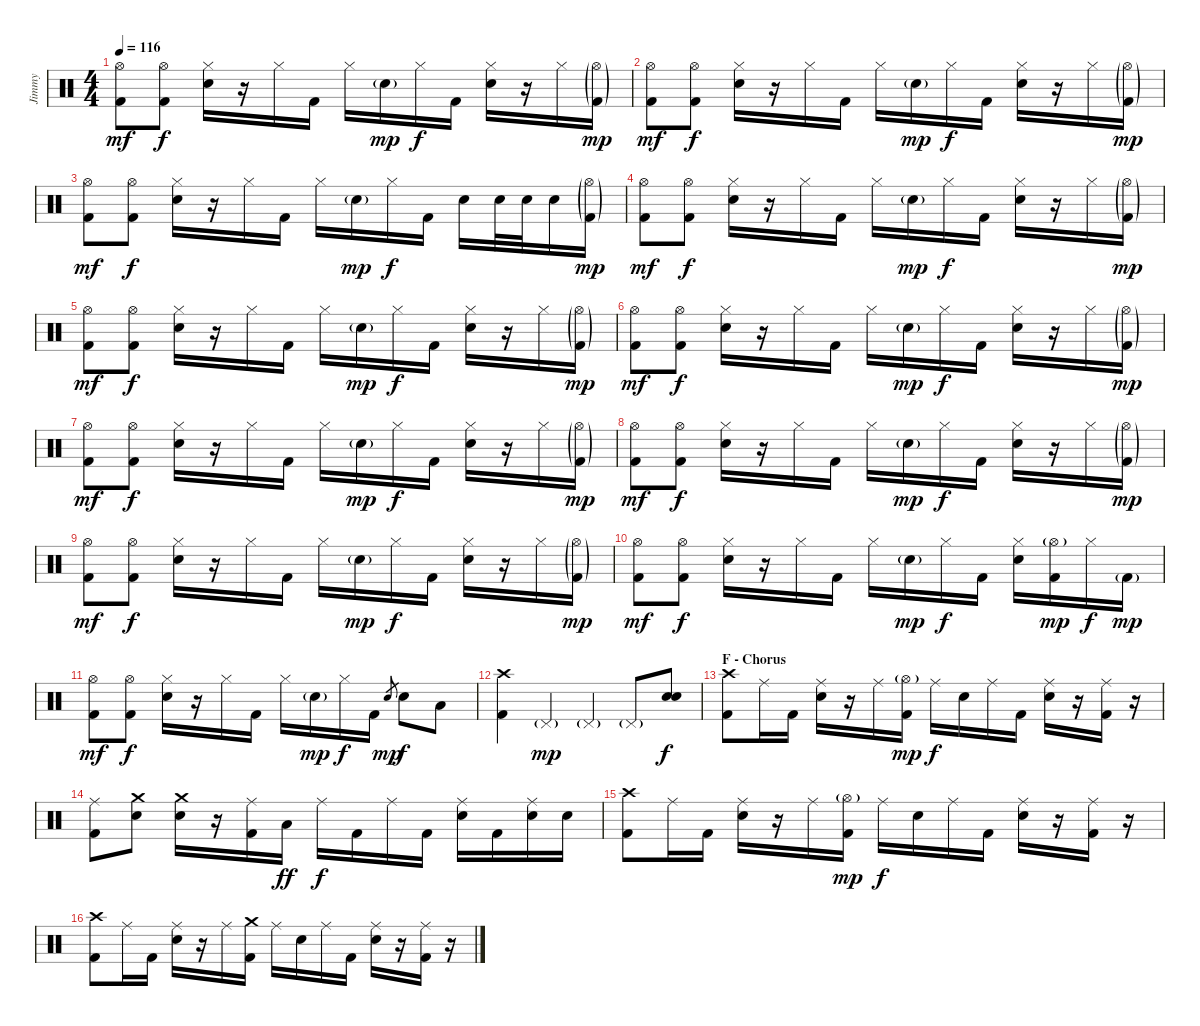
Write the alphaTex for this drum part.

\track ("Jimmy" "Jimmy") {instrument percussion}
\staff {score}
\articulation defaults
\ts (4 4)
\tempo 116
\clef neutral
\ks c
("Hi-Hat (open)" "Kick (hit) 2").8{dy mf} ("Hi-Hat (open)" "Kick (hit) 2").8{dy f} ("Hi-Hat (closed)" "Electric Snare (hit)").16 r.16 "Hi-Hat (closed)".16 "Kick (hit) 2".16 "Hi-Hat (closed)".16 "Electric Snare (hit)"{g}.16{dy mp} "Hi-Hat (closed)".16{dy f} "Kick (hit) 2".16 ("Hi-Hat (closed)" "Electric Snare (hit)").16 r.16 "Hi-Hat (closed)".16 ("Hi-Hat (open)"{g} "Kick (hit) 2"{g}).16{dy mp} |
("Hi-Hat (open)" "Kick (hit) 2").8{dy mf} ("Hi-Hat (open)" "Kick (hit) 2").8{dy f} ("Hi-Hat (closed)" "Electric Snare (hit)").16 r.16 "Hi-Hat (closed)".16 "Kick (hit) 2".16 "Hi-Hat (closed)".16 "Electric Snare (hit)"{g}.16{dy mp} "Hi-Hat (closed)".16{dy f} "Kick (hit) 2".16 ("Hi-Hat (closed)" "Electric Snare (hit)").16 r.16 "Hi-Hat (closed)".16 ("Hi-Hat (open)"{g} "Kick (hit) 2"{g}).16{dy mp} |
("Hi-Hat (open)" "Kick (hit) 2").8{dy mf} ("Hi-Hat (open)" "Kick (hit) 2").8{dy f} ("Hi-Hat (closed)" "Electric Snare (hit)").16 r.16 "Hi-Hat (closed)".16 "Kick (hit) 2".16 "Hi-Hat (closed)".16 "Electric Snare (hit)"{g}.16{dy mp} "Hi-Hat (closed)".16{dy f} "Kick (hit) 2".16 "Electric Snare (hit)".16 "Electric Snare (hit)".32 "Electric Snare (hit)".32 "Electric Snare (hit)".16 ("Hi-Hat (open)"{g} "Kick (hit) 2"{g}).16{dy mp} |
("Hi-Hat (open)" "Kick (hit) 2").8{dy mf} ("Hi-Hat (open)" "Kick (hit) 2").8{dy f} ("Hi-Hat (closed)" "Electric Snare (hit)").16 r.16 "Hi-Hat (closed)".16 "Kick (hit) 2".16 "Hi-Hat (closed)".16 "Electric Snare (hit)"{g}.16{dy mp} "Hi-Hat (closed)".16{dy f} "Kick (hit) 2".16 ("Hi-Hat (closed)" "Electric Snare (hit)").16 r.16 "Hi-Hat (closed)".16 ("Hi-Hat (open)"{g} "Kick (hit) 2"{g}).16{dy mp} |
("Hi-Hat (open)" "Kick (hit) 2").8{dy mf} ("Hi-Hat (open)" "Kick (hit) 2").8{dy f} ("Hi-Hat (closed)" "Electric Snare (hit)").16 r.16 "Hi-Hat (closed)".16 "Kick (hit) 2".16 "Hi-Hat (closed)".16 "Electric Snare (hit)"{g}.16{dy mp} "Hi-Hat (closed)".16{dy f} "Kick (hit) 2".16 ("Hi-Hat (closed)" "Electric Snare (hit)").16 r.16 "Hi-Hat (closed)".16 ("Hi-Hat (open)"{g} "Kick (hit) 2"{g}).16{dy mp} |
("Hi-Hat (open)" "Kick (hit) 2").8{dy mf} ("Hi-Hat (open)" "Kick (hit) 2").8{dy f} ("Hi-Hat (closed)" "Electric Snare (hit)").16 r.16 "Hi-Hat (closed)".16 "Kick (hit) 2".16 "Hi-Hat (closed)".16 "Electric Snare (hit)"{g}.16{dy mp} "Hi-Hat (closed)".16{dy f} "Kick (hit) 2".16 ("Hi-Hat (closed)" "Electric Snare (hit)").16 r.16 "Hi-Hat (closed)".16 ("Hi-Hat (open)"{g} "Kick (hit) 2"{g}).16{dy mp} |
("Hi-Hat (open)" "Kick (hit) 2").8{dy mf} ("Hi-Hat (open)" "Kick (hit) 2").8{dy f} ("Hi-Hat (closed)" "Electric Snare (hit)").16 r.16 "Hi-Hat (closed)".16 "Kick (hit) 2".16 "Hi-Hat (closed)".16 "Electric Snare (hit)"{g}.16{dy mp} "Hi-Hat (closed)".16{dy f} "Kick (hit) 2".16 ("Hi-Hat (closed)" "Electric Snare (hit)").16 r.16 "Hi-Hat (closed)".16 ("Hi-Hat (open)"{g} "Kick (hit) 2"{g}).16{dy mp} |
("Hi-Hat (open)" "Kick (hit) 2").8{dy mf} ("Hi-Hat (open)" "Kick (hit) 2").8{dy f} ("Hi-Hat (closed)" "Electric Snare (hit)").16 r.16 "Hi-Hat (closed)".16 "Kick (hit) 2".16 "Hi-Hat (closed)".16 "Electric Snare (hit)"{g}.16{dy mp} "Hi-Hat (closed)".16{dy f} "Kick (hit) 2".16 ("Hi-Hat (closed)" "Electric Snare (hit)").16 r.16 "Hi-Hat (closed)".16 ("Hi-Hat (open)"{g} "Kick (hit) 2"{g}).16{dy mp} |
("Hi-Hat (open)" "Kick (hit) 2").8{dy mf} ("Hi-Hat (open)" "Kick (hit) 2").8{dy f} ("Hi-Hat (closed)" "Electric Snare (hit)").16 r.16 "Hi-Hat (closed)".16 "Kick (hit) 2".16 "Hi-Hat (closed)".16 "Electric Snare (hit)"{g}.16{dy mp} "Hi-Hat (closed)".16{dy f} "Kick (hit) 2".16 ("Hi-Hat (closed)" "Electric Snare (hit)").16 r.16 "Hi-Hat (closed)".16 ("Hi-Hat (open)"{g} "Kick (hit) 2"{g}).16{dy mp} |
("Hi-Hat (open)" "Kick (hit) 2").8{dy mf} ("Hi-Hat (open)" "Kick (hit) 2").8{dy f} ("Hi-Hat (closed)" "Electric Snare (hit)").16 r.16 "Hi-Hat (closed)".16 "Kick (hit) 2".16 "Hi-Hat (closed)".16 "Electric Snare (hit)"{g}.16{dy mp} "Hi-Hat (closed)".16{dy f} "Kick (hit) 2".16 ("Hi-Hat (closed)" "Electric Snare (hit)").16 ("Hi-Hat (open)"{g} "Kick (hit) 2").16{dy mp} "Hi-Hat (closed)".16{dy f} "Kick (hit) 2"{g}.16{dy mp} |
("Hi-Hat (open)" "Kick (hit) 2").8{dy mf} ("Hi-Hat (open)" "Kick (hit) 2").8{dy f} ("Hi-Hat (closed)" "Electric Snare (hit)").16 r.16 "Hi-Hat (closed)".16 "Kick (hit) 2".16 "Hi-Hat (closed)".16 "Electric Snare (hit)"{g}.16{dy mp} "Hi-Hat (closed)".16{dy f} "Kick (hit) 2".16 "Electric Snare (hit)".8{gr dy mp} "Electric Snare (hit)".8{dy f} "Low Tom (hit)".8 |
("Crash high (hit)" "Kick (hit) 2").4 "Pedal Hi-Hat (hit)"{g}.4{dy mp} "Pedal Hi-Hat (hit)"{g}.4 "Pedal Hi-Hat (hit)"{g}.8 ("Electric Snare (hit)" "Electric Snare (hit)").8{dy f} |
\section ("" "F - Chorus")
("Crash high (hit)" "Kick (hit) 2").8 "Ride (middle)".16 "Kick (hit) 2".16 ("Ride (middle)" "Electric Snare (hit)").16 r.16 "Ride (middle)".16 ("Hi-Hat (open)"{g} "Kick (hit) 2").16{dy mp} "Ride (middle)".16{dy f} "Electric Snare (hit)".16 "Ride (middle)".16 "Kick (hit) 2".16 ("Ride (middle)" "Electric Snare (hit)").16 r.16 ("Ride (middle)" "Kick (hit) 2").16 r.16 |
("Ride (middle)" "Kick (hit) 2").8 ("Crash medium (hit)" "Electric Snare (hit)").8 ("Crash medium (hit)" "Electric Snare (hit)").16 r.16 ("Ride (middle)" "Kick (hit) 2").16 "Low Tom (hit)".16{dy ff} "Ride (middle)".16{dy f} "Kick (hit) 2".16 "Ride (middle)".16 "Kick (hit) 2".16 ("Ride (middle)" "Electric Snare (hit)").16 "Kick (hit) 2".16 ("Ride (middle)" "Electric Snare (hit)").16 "Electric Snare (hit)".16 |
("Crash high (hit)" "Kick (hit) 2").8 "Ride (middle)".16 "Kick (hit) 2".16 ("Ride (middle)" "Electric Snare (hit)").16 r.16 "Ride (middle)".16 ("Hi-Hat (open)"{g} "Kick (hit) 2").16{dy mp} "Ride (middle)".16{dy f} "Electric Snare (hit)".16 "Ride (middle)".16 "Kick (hit) 2".16 ("Ride (middle)" "Electric Snare (hit)").16 r.16 ("Ride (middle)" "Kick (hit) 2").16 r.16 |
("Crash high (hit)" "Kick (hit) 2").8 "Ride (middle)".16 "Kick (hit) 2".16 ("Ride (middle)" "Electric Snare (hit)").16 r.16 "Ride (middle)".16 ("Crash medium (hit)" "Kick (hit) 2").16 "Ride (middle)".16 "Electric Snare (hit)".16 "Ride (middle)".16 "Kick (hit) 2".16 ("Ride (middle)" "Electric Snare (hit)").16 r.16 ("Ride (middle)" "Kick (hit) 2").16 r.16
